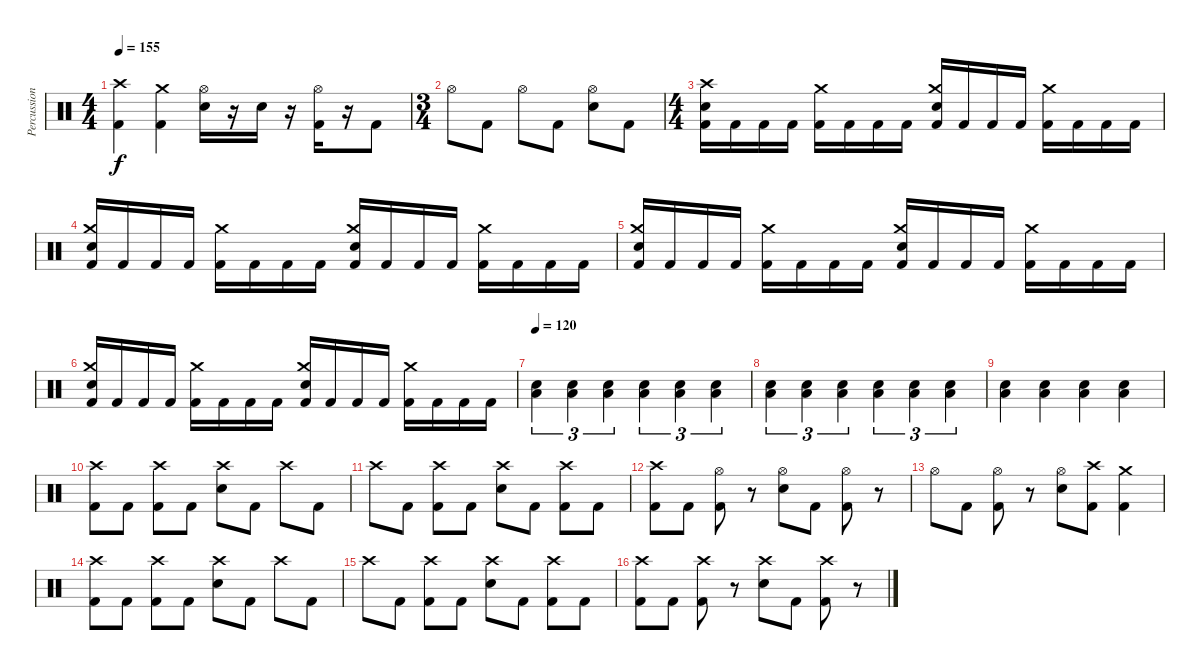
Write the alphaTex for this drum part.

\track ("Percussion" "Percussion") {instrument percussion}
\staff {score}
\articulation defaults
\ts (4 4)
\tempo 155
\clef neutral
\ks c
("Crash high (hit)" "Kick (hit) 2").4{dy f} ("Crash medium (hit)" "Kick (hit) 2").4 ("Hi-Hat (open)" "Snare (hit) 2").16 r.16 "Snare (hit) 2".16 r.16 ("Hi-Hat (open)" "Kick (hit) 2").16 r.16 "Kick (hit) 2".8 |
\ts (3 4)
"Hi-Hat (open)".8 "Kick (hit) 2".8 "Hi-Hat (open)".8 "Kick (hit) 2".8 ("Hi-Hat (open)" "Snare (hit) 2").8 "Kick (hit) 2".8 |
\ts (4 4)
("Crash high (hit)" "Snare (hit) 2" "Kick (hit) 2").16 "Kick (hit) 2".16 "Kick (hit) 2".16 "Kick (hit) 2".16 ("Crash medium (hit)" "Kick (hit) 2").16 "Kick (hit) 2".16 "Kick (hit) 2".16 "Kick (hit) 2".16 ("Crash medium (hit)" "Snare (hit) 2" "Kick (hit) 2").16 "Kick (hit) 2".16 "Kick (hit) 2".16 "Kick (hit) 2".16 ("Crash medium (hit)" "Kick (hit) 2").16 "Kick (hit) 2".16 "Kick (hit) 2".16 "Kick (hit) 2".16 |
("Crash medium (hit)" "Snare (hit) 2" "Kick (hit) 2").16 "Kick (hit) 2".16 "Kick (hit) 2".16 "Kick (hit) 2".16 ("Crash medium (hit)" "Kick (hit) 2").16 "Kick (hit) 2".16 "Kick (hit) 2".16 "Kick (hit) 2".16 ("Crash medium (hit)" "Snare (hit) 2" "Kick (hit) 2").16 "Kick (hit) 2".16 "Kick (hit) 2".16 "Kick (hit) 2".16 ("Crash medium (hit)" "Kick (hit) 2").16 "Kick (hit) 2".16 "Kick (hit) 2".16 "Kick (hit) 2".16 |
("Crash medium (hit)" "Snare (hit) 2" "Kick (hit) 2").16 "Kick (hit) 2".16 "Kick (hit) 2".16 "Kick (hit) 2".16 ("Crash medium (hit)" "Kick (hit) 2").16 "Kick (hit) 2".16 "Kick (hit) 2".16 "Kick (hit) 2".16 ("Crash medium (hit)" "Snare (hit) 2" "Kick (hit) 2").16 "Kick (hit) 2".16 "Kick (hit) 2".16 "Kick (hit) 2".16 ("Crash medium (hit)" "Kick (hit) 2").16 "Kick (hit) 2".16 "Kick (hit) 2".16 "Kick (hit) 2".16 |
("Crash medium (hit)" "Snare (hit) 2" "Kick (hit) 2").16 "Kick (hit) 2".16 "Kick (hit) 2".16 "Kick (hit) 2".16 ("Crash medium (hit)" "Kick (hit) 2").16 "Kick (hit) 2".16 "Kick (hit) 2".16 "Kick (hit) 2".16 ("Crash medium (hit)" "Snare (hit) 2" "Kick (hit) 2").16 "Kick (hit) 2".16 "Kick (hit) 2".16 "Kick (hit) 2".16 ("Crash medium (hit)" "Kick (hit) 2").16 "Kick (hit) 2".16 "Kick (hit) 2".16 "Kick (hit) 2".16 |
\tempo 120
("Snare (hit) 2" "Low Floor Tom (hit)").4{tu (3 2)} ("Snare (hit) 2" "Low Floor Tom (hit)").4{tu (3 2)} ("Snare (hit) 2" "Low Floor Tom (hit)").4{tu (3 2)} ("Snare (hit) 2" "Low Floor Tom (hit)").4{tu (3 2)} ("Snare (hit) 2" "Low Floor Tom (hit)").4{tu (3 2)} ("Snare (hit) 2" "Low Floor Tom (hit)").4{tu (3 2)} |
("Snare (hit) 2" "Low Floor Tom (hit)").4{tu (3 2)} ("Snare (hit) 2" "Low Floor Tom (hit)").4{tu (3 2)} ("Snare (hit) 2" "Low Floor Tom (hit)").4{tu (3 2)} ("Snare (hit) 2" "Low Floor Tom (hit)").4{tu (3 2)} ("Snare (hit) 2" "Low Floor Tom (hit)").4{tu (3 2)} ("Snare (hit) 2" "Low Floor Tom (hit)").4{tu (3 2)} |
("Snare (hit) 2" "Low Floor Tom (hit)").4 ("Snare (hit) 2" "Low Floor Tom (hit)").4 ("Snare (hit) 2" "Low Floor Tom (hit)").4 ("Snare (hit) 2" "Low Floor Tom (hit)").4 |
("Crash high (hit)" "Kick (hit) 2").8 "Kick (hit) 2".8 ("Crash high (hit)" "Kick (hit) 2").8 "Kick (hit) 2".8 ("Crash high (hit)" "Snare (hit) 2").8 "Kick (hit) 2".8 "Crash high (hit)".8 "Kick (hit) 2".8 |
"Crash high (hit)".8 "Kick (hit) 2".8 ("Crash high (hit)" "Kick (hit) 2").8 "Kick (hit) 2".8 ("Crash high (hit)" "Snare (hit) 2").8 "Kick (hit) 2".8 ("Crash high (hit)" "Kick (hit) 2").8 "Kick (hit) 2".8 |
("Crash high (hit)" "Kick (hit) 2").8 "Kick (hit) 2".8 ("Hi-Hat (open)" "Kick (hit) 2").8 r.8 ("Hi-Hat (open)" "Snare (hit) 2").8 "Kick (hit) 2".8 ("Hi-Hat (open)" "Kick (hit) 2").8 r.8 |
"Hi-Hat (open)".8 "Kick (hit) 2".8 ("Hi-Hat (open)" "Kick (hit) 2").8 r.8 ("Hi-Hat (open)" "Snare (hit) 2").8 ("Crash high (hit)" "Kick (hit) 2").8 ("Crash medium (hit)" "Kick (hit) 2").4 |
("Crash high (hit)" "Kick (hit) 2").8 "Kick (hit) 2".8 ("Crash high (hit)" "Kick (hit) 2").8 "Kick (hit) 2".8 ("Crash high (hit)" "Snare (hit) 2").8 "Kick (hit) 2".8 "Crash high (hit)".8 "Kick (hit) 2".8 |
"Crash high (hit)".8 "Kick (hit) 2".8 ("Crash high (hit)" "Kick (hit) 2").8 "Kick (hit) 2".8 ("Crash high (hit)" "Snare (hit) 2").8 "Kick (hit) 2".8 ("Crash high (hit)" "Kick (hit) 2").8 "Kick (hit) 2".8 |
("Crash high (hit)" "Kick (hit) 2").8 "Kick (hit) 2".8 ("Crash high (hit)" "Kick (hit) 2").8 r.8 ("Crash high (hit)" "Snare (hit) 2").8 "Kick (hit) 2".8 ("Crash high (hit)" "Kick (hit) 2").8 r.8
